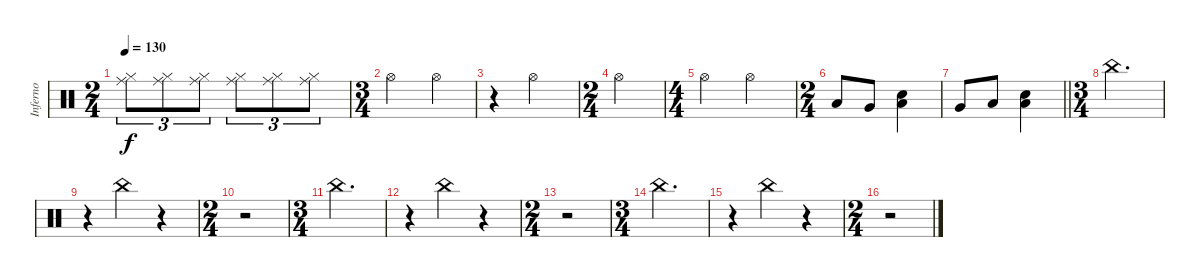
\track ("Inferno" "Inferno") {instrument percussion}
\staff {score}
\articulation defaults
\ts (2 4)
\tempo 130
\clef neutral
\ks c
("Hi-Hat (closed)" "Ride (middle)").8{tu (3 2) dy f} ("Hi-Hat (closed)" "Ride (middle)").8{tu (3 2)} ("Hi-Hat (closed)" "Ride (middle)").8{tu (3 2)} ("Hi-Hat (closed)" "Ride (middle)").8{tu (3 2)} ("Hi-Hat (closed)" "Ride (middle)").8{tu (3 2)} ("Hi-Hat (closed)" "Ride (middle)").8{tu (3 2)} |
\ts (3 4)
"Hi-Hat (open)".2 "Hi-Hat (open)".4 |
r.4 "Hi-Hat (open)".2 |
\ts (2 4)
"Hi-Hat (open)".2 |
\ts (4 4)
"Hi-Hat (open)".2 "Hi-Hat (open)".2 |
\ts (2 4)
"Low Tom (hit)".8 "Very Low Tom (hit)".8 ("Snare (hit) 2" "Low Floor Tom (hit)").4 |
\barLineRight lightlight "Very Low Tom (hit)".8 "Low Floor Tom (hit)".8
("Low Floor Tom (hit)" "Snare (hit) 2").4 |
\ts (3 4)
"China (hit)".2{d} |
r.4 "China (hit)".4 r.4 |
\ts (2 4)
r.2 |
\ts (3 4)
"China (hit)".2{d} |
r.4 "China (hit)".4 r.4 |
\ts (2 4)
r.2 |
\ts (3 4)
"China (hit)".2{d} |
r.4 "China (hit)".4 r.4 |
\ts (2 4)
r.2
